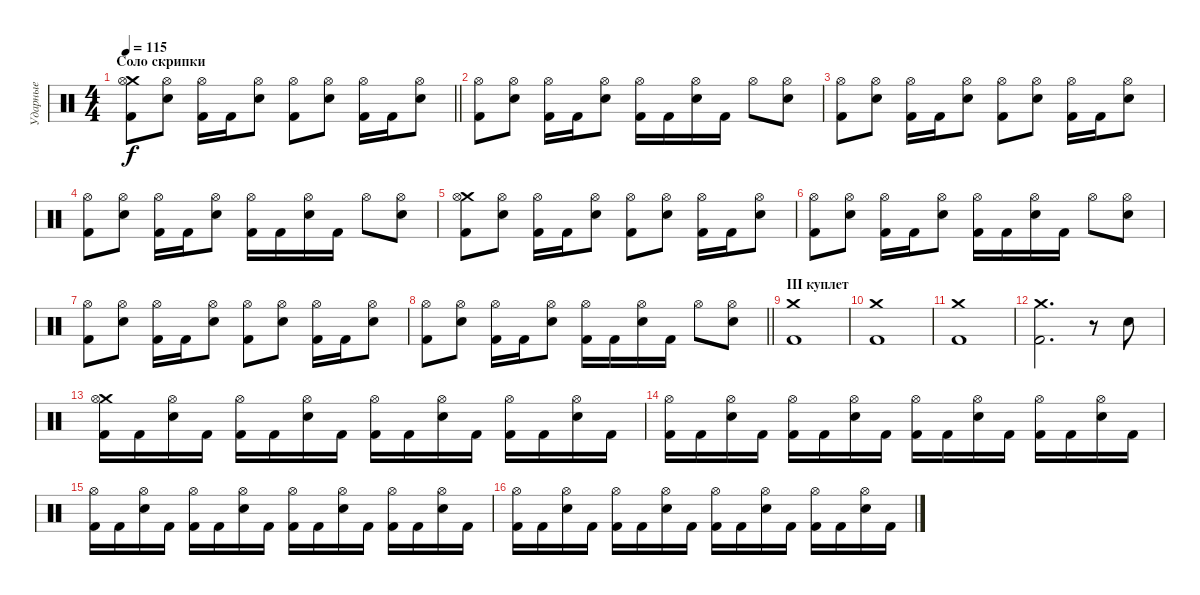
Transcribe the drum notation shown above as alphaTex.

\track ("Ударные" "Ударные") {instrument percussion}
\staff {score}
\articulation defaults
\ts (4 4)
\section ("" "Соло скрипки")
\tempo 115
\clef neutral
\barLineRight lightlight
\ks aminor
("Crash medium (hit)" "Kick (hit) 2" "Hi-Hat (open)").8{dy f} ("Electric Snare (hit)" "Hi-Hat (open)").8 ("Kick (hit) 2" "Hi-Hat (open)").16 "Kick (hit) 2".16 ("Electric Snare (hit)" "Hi-Hat (open)").8 ("Kick (hit) 2" "Hi-Hat (open)").8 ("Electric Snare (hit)" "Hi-Hat (open)").8 ("Kick (hit) 2" "Hi-Hat (open)").16 "Kick (hit) 2".16 ("Electric Snare (hit)" "Hi-Hat (open)").8 |
("Kick (hit) 2" "Hi-Hat (open)").8 ("Electric Snare (hit)" "Hi-Hat (open)").8 ("Kick (hit) 2" "Hi-Hat (open)").16 "Kick (hit) 2".16 ("Electric Snare (hit)" "Hi-Hat (open)").8 ("Kick (hit) 2" "Hi-Hat (open)").16 "Kick (hit) 2".16 ("Electric Snare (hit)" "Hi-Hat (open)").16 "Kick (hit) 2".16 "Hi-Hat (open)".8 ("Electric Snare (hit)" "Hi-Hat (open)").8 |
("Kick (hit) 2" "Hi-Hat (open)").8 ("Electric Snare (hit)" "Hi-Hat (open)").8 ("Kick (hit) 2" "Hi-Hat (open)").16 "Kick (hit) 2".16 ("Electric Snare (hit)" "Hi-Hat (open)").8 ("Kick (hit) 2" "Hi-Hat (open)").8 ("Electric Snare (hit)" "Hi-Hat (open)").8 ("Kick (hit) 2" "Hi-Hat (open)").16 "Kick (hit) 2".16 ("Electric Snare (hit)" "Hi-Hat (open)").8 |
("Kick (hit) 2" "Hi-Hat (open)").8 ("Electric Snare (hit)" "Hi-Hat (open)").8 ("Kick (hit) 2" "Hi-Hat (open)").16 "Kick (hit) 2".16 ("Electric Snare (hit)" "Hi-Hat (open)").8 ("Kick (hit) 2" "Hi-Hat (open)").16 "Kick (hit) 2".16 ("Electric Snare (hit)" "Hi-Hat (open)").16 "Kick (hit) 2".16 "Hi-Hat (open)".8 ("Electric Snare (hit)" "Hi-Hat (open)").8 |
("Crash medium (hit)" "Kick (hit) 2" "Hi-Hat (open)").8 ("Electric Snare (hit)" "Hi-Hat (open)").8 ("Kick (hit) 2" "Hi-Hat (open)").16 "Kick (hit) 2".16 ("Electric Snare (hit)" "Hi-Hat (open)").8 ("Kick (hit) 2" "Hi-Hat (open)").8 ("Electric Snare (hit)" "Hi-Hat (open)").8 ("Kick (hit) 2" "Hi-Hat (open)").16 "Kick (hit) 2".16 ("Electric Snare (hit)" "Hi-Hat (open)").8 |
("Kick (hit) 2" "Hi-Hat (open)").8 ("Electric Snare (hit)" "Hi-Hat (open)").8 ("Kick (hit) 2" "Hi-Hat (open)").16 "Kick (hit) 2".16 ("Electric Snare (hit)" "Hi-Hat (open)").8 ("Kick (hit) 2" "Hi-Hat (open)").16 "Kick (hit) 2".16 ("Electric Snare (hit)" "Hi-Hat (open)").16 "Kick (hit) 2".16 "Hi-Hat (open)".8 ("Electric Snare (hit)" "Hi-Hat (open)").8 |
("Kick (hit) 2" "Hi-Hat (open)").8 ("Electric Snare (hit)" "Hi-Hat (open)").8 ("Kick (hit) 2" "Hi-Hat (open)").16 "Kick (hit) 2".16 ("Electric Snare (hit)" "Hi-Hat (open)").8 ("Kick (hit) 2" "Hi-Hat (open)").8 ("Electric Snare (hit)" "Hi-Hat (open)").8 ("Kick (hit) 2" "Hi-Hat (open)").16 "Kick (hit) 2".16 ("Electric Snare (hit)" "Hi-Hat (open)").8 |
\barLineRight lightlight
("Kick (hit) 2" "Hi-Hat (open)").8 ("Electric Snare (hit)" "Hi-Hat (open)").8 ("Kick (hit) 2" "Hi-Hat (open)").16 "Kick (hit) 2".16 ("Electric Snare (hit)" "Hi-Hat (open)").8 ("Kick (hit) 2" "Hi-Hat (open)").16 "Kick (hit) 2".16 ("Electric Snare (hit)" "Hi-Hat (open)").16 "Kick (hit) 2".16 "Hi-Hat (open)".8 ("Electric Snare (hit)" "Hi-Hat (open)").8 |
\section ("" "III куплет")
("Crash medium (hit)" "Kick (hit) 2").1 |
("Crash medium (hit)" "Kick (hit) 2").1 |
("Crash medium (hit)" "Kick (hit) 2").1 |
("Crash medium (hit)" "Kick (hit) 2").2{d} r.8 "Electric Snare (hit)".8 |
("Crash medium (hit)" "Kick (hit) 2" "Hi-Hat (open)").16 "Kick (hit) 2".16 ("Electric Snare (hit)" "Hi-Hat (open)").16 "Kick (hit) 2".16 ("Kick (hit) 2" "Hi-Hat (open)").16 "Kick (hit) 2".16 ("Electric Snare (hit)" "Hi-Hat (open)").16 "Kick (hit) 2".16 ("Kick (hit) 2" "Hi-Hat (open)").16 "Kick (hit) 2".16 ("Electric Snare (hit)" "Hi-Hat (open)").16 "Kick (hit) 2".16 ("Kick (hit) 2" "Hi-Hat (open)").16 "Kick (hit) 2".16 ("Electric Snare (hit)" "Hi-Hat (open)").16 "Kick (hit) 2".16 |
("Kick (hit) 2" "Hi-Hat (open)").16 "Kick (hit) 2".16 ("Electric Snare (hit)" "Hi-Hat (open)").16 "Kick (hit) 2".16 ("Kick (hit) 2" "Hi-Hat (open)").16 "Kick (hit) 2".16 ("Electric Snare (hit)" "Hi-Hat (open)").16 "Kick (hit) 2".16 ("Kick (hit) 2" "Hi-Hat (open)").16 "Kick (hit) 2".16 ("Electric Snare (hit)" "Hi-Hat (open)").16 "Kick (hit) 2".16 ("Kick (hit) 2" "Hi-Hat (open)").16 "Kick (hit) 2".16 ("Electric Snare (hit)" "Hi-Hat (open)").16 "Kick (hit) 2".16 |
("Kick (hit) 2" "Hi-Hat (open)").16 "Kick (hit) 2".16 ("Electric Snare (hit)" "Hi-Hat (open)").16 "Kick (hit) 2".16 ("Kick (hit) 2" "Hi-Hat (open)").16 "Kick (hit) 2".16 ("Electric Snare (hit)" "Hi-Hat (open)").16 "Kick (hit) 2".16 ("Kick (hit) 2" "Hi-Hat (open)").16 "Kick (hit) 2".16 ("Electric Snare (hit)" "Hi-Hat (open)").16 "Kick (hit) 2".16 ("Kick (hit) 2" "Hi-Hat (open)").16 "Kick (hit) 2".16 ("Electric Snare (hit)" "Hi-Hat (open)").16 "Kick (hit) 2".16 |
("Kick (hit) 2" "Hi-Hat (open)").16 "Kick (hit) 2".16 ("Electric Snare (hit)" "Hi-Hat (open)").16 "Kick (hit) 2".16 ("Kick (hit) 2" "Hi-Hat (open)").16 "Kick (hit) 2".16 ("Electric Snare (hit)" "Hi-Hat (open)").16 "Kick (hit) 2".16 ("Kick (hit) 2" "Hi-Hat (open)").16 "Kick (hit) 2".16 ("Electric Snare (hit)" "Hi-Hat (open)").16 "Kick (hit) 2".16 ("Kick (hit) 2" "Hi-Hat (open)").16 "Kick (hit) 2".16 ("Electric Snare (hit)" "Hi-Hat (open)").16 "Kick (hit) 2".16
